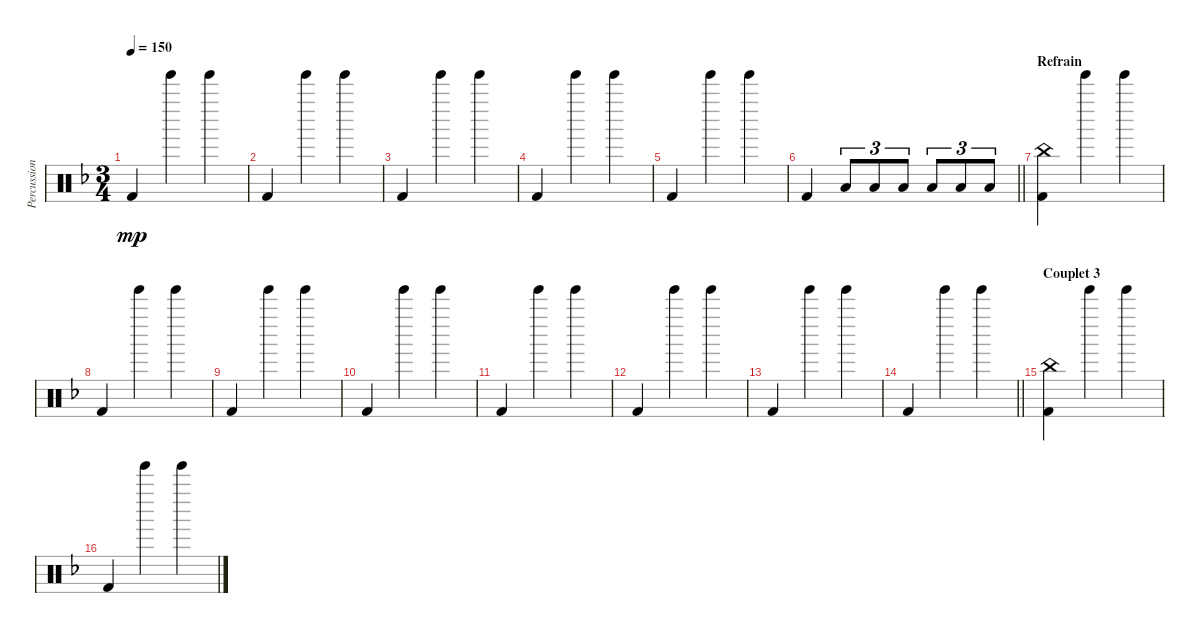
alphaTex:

\track ("Percussions" "Percussion") {instrument percussion}
\staff {score}
\articulation defaults
\ts (3 4)
\tempo 150
\clef neutral
\ks f "Kick (hit) 2".4{dy mp} "Tinkle Bell (hit)".4 "Tinkle Bell (hit)".4
|
"Kick (hit) 2".4 "Tinkle Bell (hit)".4 "Tinkle Bell (hit)".4 |
"Kick (hit) 2".4 "Tinkle Bell (hit)".4 "Tinkle Bell (hit)".4 |
"Kick (hit) 2".4 "Tinkle Bell (hit)".4 "Tinkle Bell (hit)".4 |
"Kick (hit) 2".4 "Tinkle Bell (hit)".4 "Tinkle Bell (hit)".4 |
\barLineRight lightlight "Kick (hit) 2".4 "Low Tom (hit)".8{tu (3 2)} "Low Tom (hit)".8{tu (3 2)} "Low Tom (hit)".8{tu (3 2)} "Low Tom (hit)".8{tu (3 2)} "Low Tom (hit)".8{tu (3 2)} "Low Tom (hit)".8{tu (3 2)}
|
\section ("" "Refrain")
("China (hit)" "Kick (hit) 2").4 "Tinkle Bell (hit)".4 "Tinkle Bell (hit)".4 |
"Kick (hit) 2".4 "Tinkle Bell (hit)".4 "Tinkle Bell (hit)".4 |
"Kick (hit) 2".4 "Tinkle Bell (hit)".4 "Tinkle Bell (hit)".4 |
"Kick (hit) 2".4 "Tinkle Bell (hit)".4 "Tinkle Bell (hit)".4 |
"Kick (hit) 2".4 "Tinkle Bell (hit)".4 "Tinkle Bell (hit)".4 |
"Kick (hit) 2".4 "Tinkle Bell (hit)".4 "Tinkle Bell (hit)".4 |
"Kick (hit) 2".4 "Tinkle Bell (hit)".4 "Tinkle Bell (hit)".4 |
\barLineRight lightlight "Kick (hit) 2".4 "Tinkle Bell (hit)".4 "Tinkle Bell (hit)".4
|
\section ("" "Couplet 3")
("China (hit)" "Kick (hit) 2").4 "Tinkle Bell (hit)".4 "Tinkle Bell (hit)".4 |
"Kick (hit) 2".4 "Tinkle Bell (hit)".4 "Tinkle Bell (hit)".4
